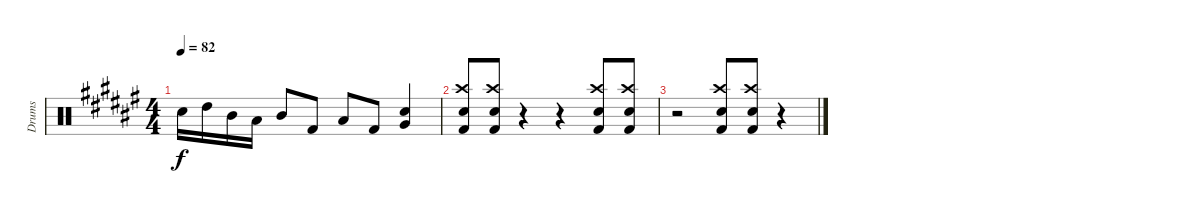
\track ("Drums" "Drums") {instrument percussion}
\staff {score}
\articulation defaults
\ts (4 4)
\tempo 82
\clef neutral
\ks f# "Electric Snare (hit)".16{dy f} "High Tom (hit)".16 "Mid Tom (hit)".16 "Low Tom (hit)".16 "Mid Tom (hit)".8 "Kick (hit) 2".8 "Low Tom (hit)".8 "Kick (hit) 2".8
("Electric Snare (hit)" "Very Low Tom (hit)").4 |
("Crash high (hit)" "Snare (hit) 2" "Kick (hit) 2").8 ("Crash high (hit)" "Snare (hit) 2" "Kick (hit) 2").8 r.4{volume 0} r.4 ("Crash high (hit)" "Snare (hit) 2" "Kick (hit) 2").8{volume 16} ("Crash high (hit)" "Snare (hit) 2" "Kick (hit) 2").8 |
r.2{volume 0} ("Crash high (hit)" "Snare (hit) 2" "Kick (hit) 2").8{volume 16} ("Crash high (hit)" "Snare (hit) 2" "Kick (hit) 2").8 r.4{volume 0}
